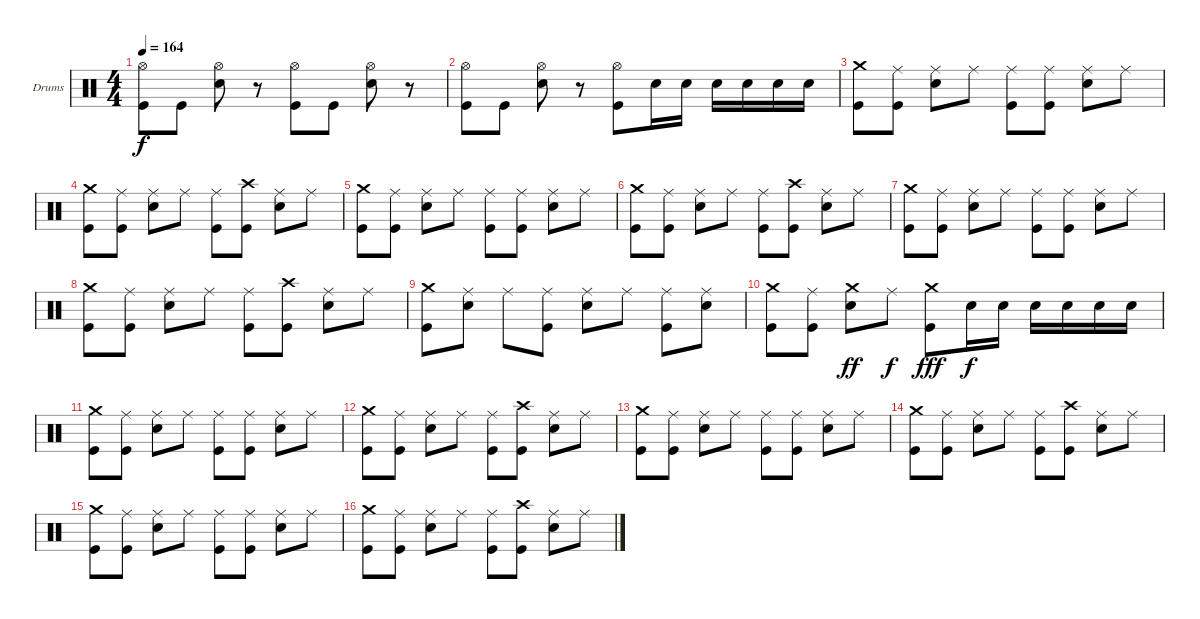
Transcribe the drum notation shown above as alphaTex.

\defaultSystemsLayout 4
\bracketExtendMode nobrackets
\firstSystemTrackNameOrientation horizontal
\otherSystemsTrackNameOrientation horizontal
\track ("Dave Abbruzzese" "Drums") {solo instrument percussion}
\staff {score}
\articulation defaults
\ts (4 4)
\tempo 164
\clef neutral
\ks c
("Kick (hit)" "Hi-Hat (open)").8{dy f} "Kick (hit)".8 ("Snare (hit) 2" "Hi-Hat (open)").8 r.8 ("Kick (hit)" "Hi-Hat (open)").8 "Kick (hit)".8 ("Snare (hit) 2" "Hi-Hat (open)").8 r.8 |
("Kick (hit)" "Hi-Hat (open)").8 "Kick (hit)".8 ("Snare (hit) 2" "Hi-Hat (open)").8 r.8 ("Kick (hit)" "Hi-Hat (open)").8 "Snare (hit) 2".16 "Snare (hit) 2".16 "Snare (hit) 2".16 "Snare (hit) 2".16 "Snare (hit) 2".16 "Snare (hit) 2".16 |
("Kick (hit)" "Crash medium (hit)").8 ("Kick (hit)" "Ride (middle)").8 ("Snare (hit) 2" "Ride (middle)").8 "Ride (middle)".8 ("Kick (hit)" "Ride (middle)").8 ("Kick (hit)" "Ride (middle)").8 ("Snare (hit) 2" "Ride (middle)").8 "Ride (middle)".8 |
("Kick (hit)" "Crash medium (hit)").8 ("Kick (hit)" "Ride (middle)").8 ("Snare (hit) 2" "Ride (middle)").8 "Ride (middle)".8 ("Kick (hit)" "Ride (middle)").8 ("Kick (hit)" "Crash high (hit)").8 ("Snare (hit) 2" "Ride (middle)").8 "Ride (middle)".8 |
("Kick (hit)" "Crash medium (hit)").8 ("Kick (hit)" "Ride (middle)").8 ("Snare (hit) 2" "Ride (middle)").8 "Ride (middle)".8 ("Kick (hit)" "Ride (middle)").8 ("Kick (hit)" "Ride (middle)").8 ("Snare (hit) 2" "Ride (middle)").8 "Ride (middle)".8 |
("Kick (hit)" "Crash medium (hit)").8 ("Kick (hit)" "Ride (middle)").8 ("Snare (hit) 2" "Ride (middle)").8 "Ride (middle)".8 ("Kick (hit)" "Ride (middle)").8 ("Kick (hit)" "Crash high (hit)").8 ("Snare (hit) 2" "Ride (middle)").8 "Ride (middle)".8 |
("Kick (hit)" "Crash medium (hit)").8 ("Kick (hit)" "Ride (middle)").8 ("Snare (hit) 2" "Ride (middle)").8 "Ride (middle)".8 ("Kick (hit)" "Ride (middle)").8 ("Kick (hit)" "Ride (middle)").8 ("Snare (hit) 2" "Ride (middle)").8 "Ride (middle)".8 |
("Kick (hit)" "Crash medium (hit)").8 ("Kick (hit)" "Ride (middle)").8 ("Snare (hit) 2" "Ride (middle)").8 "Ride (middle)".8 ("Kick (hit)" "Ride (middle)").8 ("Kick (hit)" "Crash high (hit)").8 ("Snare (hit) 2" "Ride (middle)").8 "Ride (middle)".8 |
("Kick (hit)" "Crash medium (hit)").8 ("Snare (hit) 2" "Ride (middle)").8 "Ride (middle)".8 ("Kick (hit)" "Ride (middle)").8 ("Snare (hit) 2" "Ride (middle)").8 "Ride (middle)".8 ("Kick (hit)" "Ride (middle)").8 ("Snare (hit) 2" "Ride (middle)").8 |
("Crash medium (hit)" "Kick (hit)").8 ("Kick (hit)" "Ride (middle)").8 ("Crash medium (hit)" "Snare (hit) 2").8{dy ff} "Ride (middle)".8{dy f} ("Crash medium (hit)" "Kick (hit)").8{dy fff} "Snare (hit) 2".16{dy f} "Snare (hit) 2".16 "Snare (hit) 2".16 "Snare (hit) 2".16 "Snare (hit) 2".16 "Snare (hit) 2".16 |
("Kick (hit)" "Crash medium (hit)").8 ("Kick (hit)" "Ride (middle)").8 ("Snare (hit) 2" "Ride (middle)").8 "Ride (middle)".8 ("Kick (hit)" "Ride (middle)").8 ("Kick (hit)" "Ride (middle)").8 ("Snare (hit) 2" "Ride (middle)").8 "Ride (middle)".8 |
("Kick (hit)" "Crash medium (hit)").8 ("Kick (hit)" "Ride (middle)").8 ("Snare (hit) 2" "Ride (middle)").8 "Ride (middle)".8 ("Kick (hit)" "Ride (middle)").8 ("Kick (hit)" "Crash high (hit)").8 ("Snare (hit) 2" "Ride (middle)").8 "Ride (middle)".8 |
("Kick (hit)" "Crash medium (hit)").8 ("Kick (hit)" "Ride (middle)").8 ("Snare (hit) 2" "Ride (middle)").8 "Ride (middle)".8 ("Kick (hit)" "Ride (middle)").8 ("Kick (hit)" "Ride (middle)").8 ("Snare (hit) 2" "Ride (middle)").8 "Ride (middle)".8 |
("Kick (hit)" "Crash medium (hit)").8 ("Kick (hit)" "Ride (middle)").8 ("Snare (hit) 2" "Ride (middle)").8 "Ride (middle)".8 ("Kick (hit)" "Ride (middle)").8 ("Kick (hit)" "Crash high (hit)").8 ("Snare (hit) 2" "Ride (middle)").8 "Ride (middle)".8 |
("Kick (hit)" "Crash medium (hit)").8 ("Kick (hit)" "Ride (middle)").8 ("Snare (hit) 2" "Ride (middle)").8 "Ride (middle)".8 ("Kick (hit)" "Ride (middle)").8 ("Kick (hit)" "Ride (middle)").8 ("Snare (hit) 2" "Ride (middle)").8 "Ride (middle)".8 |
("Kick (hit)" "Crash medium (hit)").8 ("Kick (hit)" "Ride (middle)").8 ("Snare (hit) 2" "Ride (middle)").8 "Ride (middle)".8 ("Kick (hit)" "Ride (middle)").8 ("Kick (hit)" "Crash high (hit)").8 ("Snare (hit) 2" "Ride (middle)").8 "Ride (middle)".8
